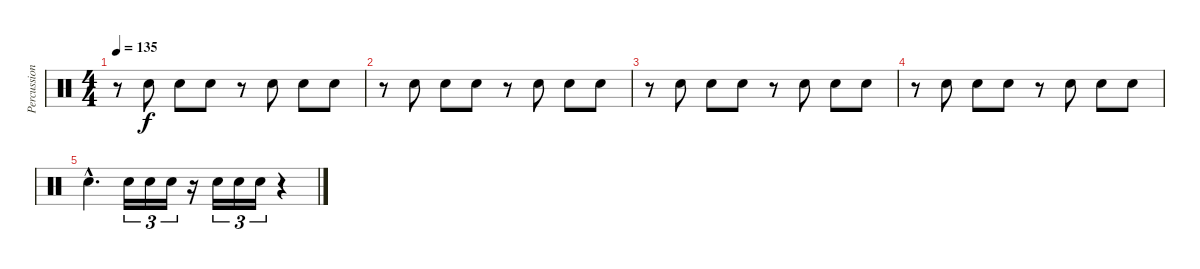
\track ("Percussions 2" "Percussion") {instrument percussion}
\staff {score}
\articulation defaults
\ts (4 4)
\tempo 135
\clef neutral
\ks c
r.8{dy f} "Snare (hit) 2".8 "Snare (hit) 2".8 "Snare (hit) 2".8 r.8 "Snare (hit) 2".8 "Snare (hit) 2".8 "Snare (hit) 2".8 |
r.8 "Snare (hit) 2".8 "Snare (hit) 2".8 "Snare (hit) 2".8 r.8 "Snare (hit) 2".8 "Snare (hit) 2".8 "Snare (hit) 2".8 |
r.8 "Snare (hit) 2".8 "Snare (hit) 2".8 "Snare (hit) 2".8 r.8 "Snare (hit) 2".8 "Snare (hit) 2".8 "Snare (hit) 2".8 |
r.8 "Snare (hit) 2".8 "Snare (hit) 2".8 "Snare (hit) 2".8 r.8 "Snare (hit) 2".8 "Snare (hit) 2".8 "Snare (hit) 2".8 |
"Snare (hit) 2"{hac}.4{d} "Snare (hit) 2".16{tu (3 2)} "Snare (hit) 2".16{tu (3 2)} "Snare (hit) 2".16{tu (3 2)} r.16 "Snare (hit) 2".16{tu (3 2)} "Snare (hit) 2".16{tu (3 2)} "Snare (hit) 2".16{tu (3 2)} r.4
